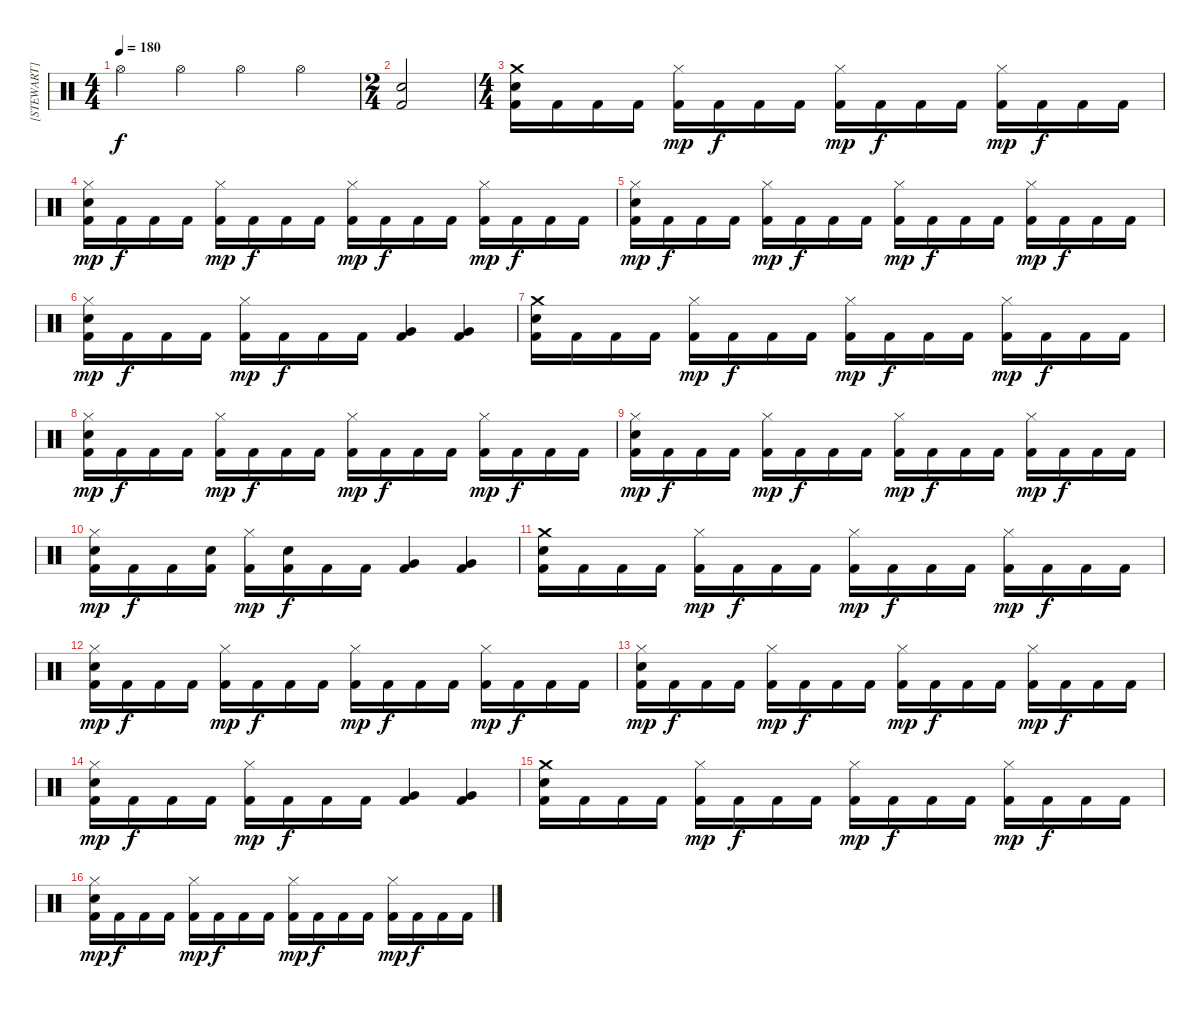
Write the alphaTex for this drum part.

\track ("[STEWART]" "[STEWART]") {instrument percussion}
\staff {score}
\articulation defaults
\ts (4 4)
\tempo 180
\clef neutral
\ks c "Hi-Hat (open)".4{dy f} "Hi-Hat (open)".4 "Hi-Hat (open)".4 "Hi-Hat (open)".4
|
\ts (2 4)
("Snare (hit) 2" "Kick (hit) 2").2 |
\ts (4 4)
("Crash medium (hit)" "Snare (hit) 2" "Kick (hit) 2").16 "Kick (hit) 2".16 "Kick (hit) 2".16 "Kick (hit) 2".16 ("Hi-Hat (closed)" "Kick (hit) 2").16{dy mp} "Kick (hit) 2".16{dy f} "Kick (hit) 2".16 "Kick (hit) 2".16 ("Hi-Hat (closed)" "Kick (hit) 2").16{dy mp} "Kick (hit) 2".16{dy f} "Kick (hit) 2".16 "Kick (hit) 2".16 ("Hi-Hat (closed)" "Kick (hit) 2").16{dy mp} "Kick (hit) 2".16{dy f} "Kick (hit) 2".16 "Kick (hit) 2".16 |
("Hi-Hat (closed)" "Snare (hit) 2" "Kick (hit) 2").16{dy mp} "Kick (hit) 2".16{dy f} "Kick (hit) 2".16 "Kick (hit) 2".16 ("Hi-Hat (closed)" "Kick (hit) 2").16{dy mp} "Kick (hit) 2".16{dy f} "Kick (hit) 2".16 "Kick (hit) 2".16 ("Hi-Hat (closed)" "Kick (hit) 2").16{dy mp} "Kick (hit) 2".16{dy f} "Kick (hit) 2".16 "Kick (hit) 2".16 ("Hi-Hat (closed)" "Kick (hit) 2").16{dy mp} "Kick (hit) 2".16{dy f} "Kick (hit) 2".16 "Kick (hit) 2".16 |
("Hi-Hat (closed)" "Snare (hit) 2" "Kick (hit) 2").16{dy mp} "Kick (hit) 2".16{dy f} "Kick (hit) 2".16 "Kick (hit) 2".16 ("Hi-Hat (closed)" "Kick (hit) 2").16{dy mp} "Kick (hit) 2".16{dy f} "Kick (hit) 2".16 "Kick (hit) 2".16 ("Hi-Hat (closed)" "Kick (hit) 2").16{dy mp} "Kick (hit) 2".16{dy f} "Kick (hit) 2".16 "Kick (hit) 2".16 ("Hi-Hat (closed)" "Kick (hit) 2").16{dy mp} "Kick (hit) 2".16{dy f} "Kick (hit) 2".16 "Kick (hit) 2".16 |
("Hi-Hat (closed)" "Snare (hit) 2" "Kick (hit) 2").16{dy mp} "Kick (hit) 2".16{dy f} "Kick (hit) 2".16 "Kick (hit) 2".16 ("Hi-Hat (closed)" "Kick (hit) 2").16{dy mp} "Kick (hit) 2".16{dy f} "Kick (hit) 2".16 "Kick (hit) 2".16 ("Very Low Tom (hit)" "Kick (hit) 2").4 ("Very Low Tom (hit)" "Kick (hit) 2").4 |
("Crash medium (hit)" "Snare (hit) 2" "Kick (hit) 2").16 "Kick (hit) 2".16 "Kick (hit) 2".16 "Kick (hit) 2".16 ("Hi-Hat (closed)" "Kick (hit) 2").16{dy mp} "Kick (hit) 2".16{dy f} "Kick (hit) 2".16 "Kick (hit) 2".16 ("Hi-Hat (closed)" "Kick (hit) 2").16{dy mp} "Kick (hit) 2".16{dy f} "Kick (hit) 2".16 "Kick (hit) 2".16 ("Hi-Hat (closed)" "Kick (hit) 2").16{dy mp} "Kick (hit) 2".16{dy f} "Kick (hit) 2".16 "Kick (hit) 2".16 |
("Hi-Hat (closed)" "Snare (hit) 2" "Kick (hit) 2").16{dy mp} "Kick (hit) 2".16{dy f} "Kick (hit) 2".16 "Kick (hit) 2".16 ("Hi-Hat (closed)" "Kick (hit) 2").16{dy mp} "Kick (hit) 2".16{dy f} "Kick (hit) 2".16 "Kick (hit) 2".16 ("Hi-Hat (closed)" "Kick (hit) 2").16{dy mp} "Kick (hit) 2".16{dy f} "Kick (hit) 2".16 "Kick (hit) 2".16 ("Hi-Hat (closed)" "Kick (hit) 2").16{dy mp} "Kick (hit) 2".16{dy f} "Kick (hit) 2".16 "Kick (hit) 2".16 |
("Hi-Hat (closed)" "Snare (hit) 2" "Kick (hit) 2").16{dy mp} "Kick (hit) 2".16{dy f} "Kick (hit) 2".16 "Kick (hit) 2".16 ("Hi-Hat (closed)" "Kick (hit) 2").16{dy mp} "Kick (hit) 2".16{dy f} "Kick (hit) 2".16 "Kick (hit) 2".16 ("Hi-Hat (closed)" "Kick (hit) 2").16{dy mp} "Kick (hit) 2".16{dy f} "Kick (hit) 2".16 "Kick (hit) 2".16 ("Hi-Hat (closed)" "Kick (hit) 2").16{dy mp} "Kick (hit) 2".16{dy f} "Kick (hit) 2".16 "Kick (hit) 2".16 |
("Hi-Hat (closed)" "Snare (hit) 2" "Kick (hit) 2").16{dy mp} "Kick (hit) 2".16{dy f} "Kick (hit) 2".16 ("Snare (hit) 2" "Kick (hit) 2").16 ("Hi-Hat (closed)" "Kick (hit) 2").16{dy mp} ("Snare (hit) 2" "Kick (hit) 2").16{dy f} "Kick (hit) 2".16 "Kick (hit) 2".16 ("Very Low Tom (hit)" "Kick (hit) 2").4 ("Very Low Tom (hit)" "Kick (hit) 2").4 |
("Crash medium (hit)" "Snare (hit) 2" "Kick (hit) 2").16 "Kick (hit) 2".16 "Kick (hit) 2".16 "Kick (hit) 2".16 ("Hi-Hat (closed)" "Kick (hit) 2").16{dy mp} "Kick (hit) 2".16{dy f} "Kick (hit) 2".16 "Kick (hit) 2".16 ("Hi-Hat (closed)" "Kick (hit) 2").16{dy mp} "Kick (hit) 2".16{dy f} "Kick (hit) 2".16 "Kick (hit) 2".16 ("Hi-Hat (closed)" "Kick (hit) 2").16{dy mp} "Kick (hit) 2".16{dy f} "Kick (hit) 2".16 "Kick (hit) 2".16 |
("Hi-Hat (closed)" "Snare (hit) 2" "Kick (hit) 2").16{dy mp} "Kick (hit) 2".16{dy f} "Kick (hit) 2".16 "Kick (hit) 2".16 ("Hi-Hat (closed)" "Kick (hit) 2").16{dy mp} "Kick (hit) 2".16{dy f} "Kick (hit) 2".16 "Kick (hit) 2".16 ("Hi-Hat (closed)" "Kick (hit) 2").16{dy mp} "Kick (hit) 2".16{dy f} "Kick (hit) 2".16 "Kick (hit) 2".16 ("Hi-Hat (closed)" "Kick (hit) 2").16{dy mp} "Kick (hit) 2".16{dy f} "Kick (hit) 2".16 "Kick (hit) 2".16 |
("Hi-Hat (closed)" "Snare (hit) 2" "Kick (hit) 2").16{dy mp} "Kick (hit) 2".16{dy f} "Kick (hit) 2".16 "Kick (hit) 2".16 ("Hi-Hat (closed)" "Kick (hit) 2").16{dy mp} "Kick (hit) 2".16{dy f} "Kick (hit) 2".16 "Kick (hit) 2".16 ("Hi-Hat (closed)" "Kick (hit) 2").16{dy mp} "Kick (hit) 2".16{dy f} "Kick (hit) 2".16 "Kick (hit) 2".16 ("Hi-Hat (closed)" "Kick (hit) 2").16{dy mp} "Kick (hit) 2".16{dy f} "Kick (hit) 2".16 "Kick (hit) 2".16 |
("Hi-Hat (closed)" "Snare (hit) 2" "Kick (hit) 2").16{dy mp} "Kick (hit) 2".16{dy f} "Kick (hit) 2".16 "Kick (hit) 2".16 ("Hi-Hat (closed)" "Kick (hit) 2").16{dy mp} "Kick (hit) 2".16{dy f} "Kick (hit) 2".16 "Kick (hit) 2".16 ("Very Low Tom (hit)" "Kick (hit) 2").4 ("Very Low Tom (hit)" "Kick (hit) 2").4 |
("Crash medium (hit)" "Snare (hit) 2" "Kick (hit) 2").16 "Kick (hit) 2".16 "Kick (hit) 2".16 "Kick (hit) 2".16 ("Hi-Hat (closed)" "Kick (hit) 2").16{dy mp} "Kick (hit) 2".16{dy f} "Kick (hit) 2".16 "Kick (hit) 2".16 ("Hi-Hat (closed)" "Kick (hit) 2").16{dy mp} "Kick (hit) 2".16{dy f} "Kick (hit) 2".16 "Kick (hit) 2".16 ("Hi-Hat (closed)" "Kick (hit) 2").16{dy mp} "Kick (hit) 2".16{dy f} "Kick (hit) 2".16 "Kick (hit) 2".16 |
("Hi-Hat (closed)" "Snare (hit) 2" "Kick (hit) 2").16{dy mp} "Kick (hit) 2".16{dy f} "Kick (hit) 2".16 "Kick (hit) 2".16 ("Hi-Hat (closed)" "Kick (hit) 2").16{dy mp} "Kick (hit) 2".16{dy f} "Kick (hit) 2".16 "Kick (hit) 2".16 ("Hi-Hat (closed)" "Kick (hit) 2").16{dy mp} "Kick (hit) 2".16{dy f} "Kick (hit) 2".16 "Kick (hit) 2".16 ("Hi-Hat (closed)" "Kick (hit) 2").16{dy mp} "Kick (hit) 2".16{dy f} "Kick (hit) 2".16 "Kick (hit) 2".16
